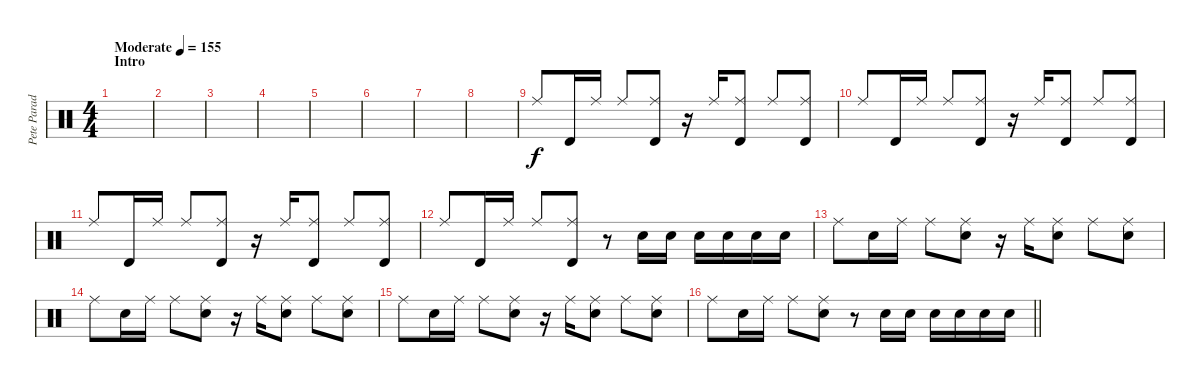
\track ("Pete Parada - Drums" "Pete Parad") {instrument percussion}
\staff {score}
\articulation defaults
\ts (4 4)
\section ("" "Intro")
\tempo (155 "Moderate")
\clef neutral
\ks c
|
|
|
|
|
|
|
|
"Ride (middle)".8 "Timbale high (hit)".16 "Ride (middle)".16 "Ride (middle)".8 ("Ride (middle)" "Timbale high (hit)").8 r.16 "Ride (middle)".16 ("Ride (middle)" "Timbale high (hit)").8 "Ride (middle)".8 ("Ride (middle)" "Timbale high (hit)").8 |
"Ride (middle)".8 "Timbale high (hit)".16 "Ride (middle)".16 "Ride (middle)".8 ("Ride (middle)" "Timbale high (hit)").8 r.16 "Ride (middle)".16 ("Ride (middle)" "Timbale high (hit)").8 "Ride (middle)".8 ("Ride (middle)" "Timbale high (hit)").8 |
"Ride (middle)".8 "Timbale high (hit)".16 "Ride (middle)".16 "Ride (middle)".8 ("Ride (middle)" "Timbale high (hit)").8 r.16 "Ride (middle)".16 ("Ride (middle)" "Timbale high (hit)").8 "Ride (middle)".8 ("Ride (middle)" "Timbale high (hit)").8 |
"Ride (middle)".8 "Timbale high (hit)".16 "Ride (middle)".16 "Ride (middle)".8 ("Ride (middle)" "Timbale high (hit)").8 r.8 "Electric Snare (hit)".16 "Electric Snare (hit)".16 "Electric Snare (hit)".16 "Electric Snare (hit)".16 "Electric Snare (hit)".16 "Electric Snare (hit)".16 |
"Ride (middle)".8 "Electric Snare (hit)".16 "Ride (middle)".16 "Ride (middle)".8 ("Ride (middle)" "Electric Snare (hit)").8 r.16 "Ride (middle)".16 ("Ride (middle)" "Electric Snare (hit)").8 "Ride (middle)".8 ("Ride (middle)" "Electric Snare (hit)").8 |
"Ride (middle)".8 "Electric Snare (hit)".16 "Ride (middle)".16 "Ride (middle)".8 ("Ride (middle)" "Electric Snare (hit)").8 r.16 "Ride (middle)".16 ("Ride (middle)" "Electric Snare (hit)").8 "Ride (middle)".8 ("Ride (middle)" "Electric Snare (hit)").8 |
"Ride (middle)".8 "Electric Snare (hit)".16 "Ride (middle)".16 "Ride (middle)".8 ("Ride (middle)" "Electric Snare (hit)").8 r.16 "Ride (middle)".16 ("Ride (middle)" "Electric Snare (hit)").8 "Ride (middle)".8 ("Ride (middle)" "Electric Snare (hit)").8 |
\barLineRight lightlight "Ride (middle)".8 "Electric Snare (hit)".16 "Ride (middle)".16 "Ride (middle)".8
("Ride (middle)" "Electric Snare (hit)").8 r.8 "Electric Snare (hit)".16 "Electric Snare (hit)".16 "Electric Snare (hit)".16 "Electric Snare (hit)".16 "Electric Snare (hit)".16 "Electric Snare (hit)".16
